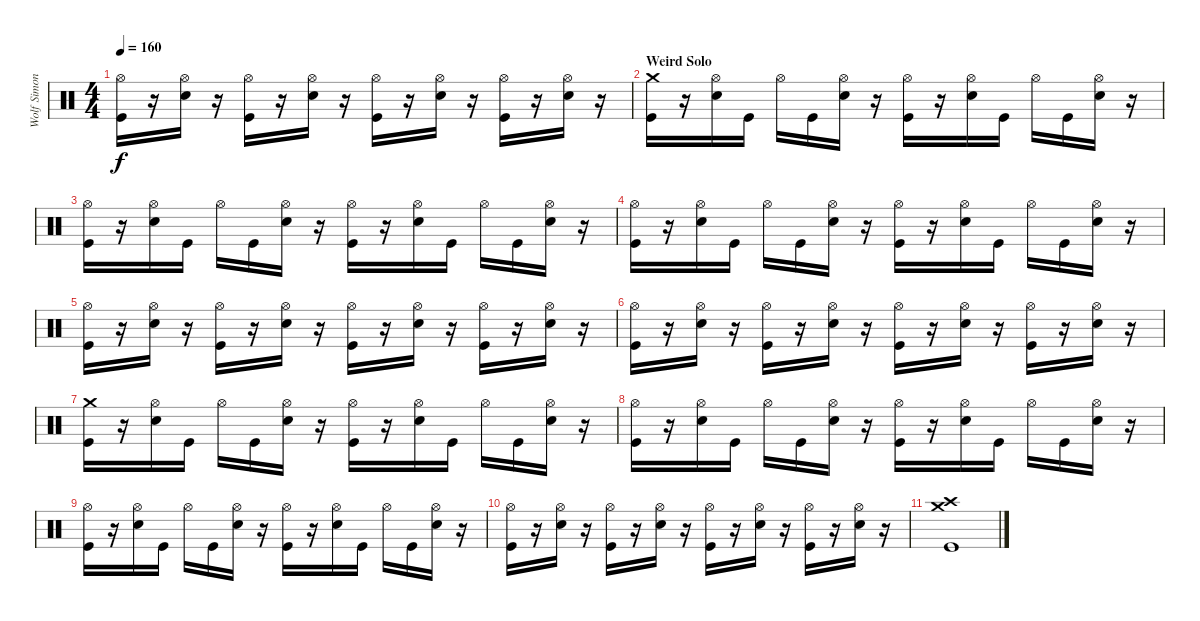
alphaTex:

\track ("Wolf Simons" "Wolf Simon") {instrument percussion}
\staff {score}
\articulation defaults
\ts (4 4)
\tempo 160
\clef neutral
\ks c
("Hi-Hat (open)" "Kick (hit)").16{dy f} r.16 ("Hi-Hat (open)" "Electric Snare (hit)").16 r.16 ("Hi-Hat (open)" "Kick (hit)").16 r.16 ("Hi-Hat (open)" "Electric Snare (hit)").16 r.16 ("Hi-Hat (open)" "Kick (hit)").16 r.16 ("Hi-Hat (open)" "Electric Snare (hit)").16 r.16 ("Hi-Hat (open)" "Kick (hit)").16 r.16 ("Hi-Hat (open)" "Electric Snare (hit)").16 r.16 |
\section ("" "Weird Solo")
("Crash medium (hit)" "Kick (hit)").16 r.16 ("Hi-Hat (open)" "Electric Snare (hit)").16 "Kick (hit)".16 "Hi-Hat (open)".16 "Kick (hit)".16 ("Hi-Hat (open)" "Electric Snare (hit)").16 r.16 ("Hi-Hat (open)" "Kick (hit)").16 r.16 ("Hi-Hat (open)" "Electric Snare (hit)").16 "Kick (hit)".16 "Hi-Hat (open)".16 "Kick (hit)".16 ("Hi-Hat (open)" "Electric Snare (hit)").16 r.16 |
("Hi-Hat (open)" "Kick (hit)").16 r.16 ("Hi-Hat (open)" "Electric Snare (hit)").16 "Kick (hit)".16 "Hi-Hat (open)".16 "Kick (hit)".16 ("Hi-Hat (open)" "Electric Snare (hit)").16 r.16 ("Hi-Hat (open)" "Kick (hit)").16 r.16 ("Hi-Hat (open)" "Electric Snare (hit)").16 "Kick (hit)".16 "Hi-Hat (open)".16 "Kick (hit)".16 ("Hi-Hat (open)" "Electric Snare (hit)").16 r.16 |
("Hi-Hat (open)" "Kick (hit)").16 r.16 ("Hi-Hat (open)" "Electric Snare (hit)").16 "Kick (hit)".16 "Hi-Hat (open)".16 "Kick (hit)".16 ("Hi-Hat (open)" "Electric Snare (hit)").16 r.16 ("Hi-Hat (open)" "Kick (hit)").16 r.16 ("Hi-Hat (open)" "Electric Snare (hit)").16 "Kick (hit)".16 "Hi-Hat (open)".16 "Kick (hit)".16 ("Hi-Hat (open)" "Electric Snare (hit)").16 r.16 |
("Hi-Hat (open)" "Kick (hit)").16 r.16 ("Hi-Hat (open)" "Electric Snare (hit)").16 r.16 ("Hi-Hat (open)" "Kick (hit)").16 r.16 ("Hi-Hat (open)" "Electric Snare (hit)").16 r.16 ("Hi-Hat (open)" "Kick (hit)").16 r.16 ("Hi-Hat (open)" "Electric Snare (hit)").16 r.16 ("Hi-Hat (open)" "Kick (hit)").16 r.16 ("Hi-Hat (open)" "Electric Snare (hit)").16 r.16 |
("Hi-Hat (open)" "Kick (hit)").16 r.16 ("Hi-Hat (open)" "Electric Snare (hit)").16 r.16 ("Hi-Hat (open)" "Kick (hit)").16 r.16 ("Hi-Hat (open)" "Electric Snare (hit)").16 r.16 ("Hi-Hat (open)" "Kick (hit)").16 r.16 ("Hi-Hat (open)" "Electric Snare (hit)").16 r.16 ("Hi-Hat (open)" "Kick (hit)").16 r.16 ("Hi-Hat (open)" "Electric Snare (hit)").16 r.16 |
("Crash medium (hit)" "Kick (hit)").16 r.16 ("Hi-Hat (open)" "Electric Snare (hit)").16 "Kick (hit)".16 "Hi-Hat (open)".16 "Kick (hit)".16 ("Hi-Hat (open)" "Electric Snare (hit)").16 r.16 ("Hi-Hat (open)" "Kick (hit)").16 r.16 ("Hi-Hat (open)" "Electric Snare (hit)").16 "Kick (hit)".16 "Hi-Hat (open)".16 "Kick (hit)".16 ("Hi-Hat (open)" "Electric Snare (hit)").16 r.16 |
("Hi-Hat (open)" "Kick (hit)").16 r.16 ("Hi-Hat (open)" "Electric Snare (hit)").16 "Kick (hit)".16 "Hi-Hat (open)".16 "Kick (hit)".16 ("Hi-Hat (open)" "Electric Snare (hit)").16 r.16 ("Hi-Hat (open)" "Kick (hit)").16 r.16 ("Hi-Hat (open)" "Electric Snare (hit)").16 "Kick (hit)".16 "Hi-Hat (open)".16 "Kick (hit)".16 ("Hi-Hat (open)" "Electric Snare (hit)").16 r.16 |
("Hi-Hat (open)" "Kick (hit)").16 r.16 ("Hi-Hat (open)" "Electric Snare (hit)").16 "Kick (hit)".16 "Hi-Hat (open)".16 "Kick (hit)".16 ("Hi-Hat (open)" "Electric Snare (hit)").16 r.16 ("Hi-Hat (open)" "Kick (hit)").16 r.16 ("Hi-Hat (open)" "Electric Snare (hit)").16 "Kick (hit)".16 "Hi-Hat (open)".16 "Kick (hit)".16 ("Hi-Hat (open)" "Electric Snare (hit)").16 r.16 |
("Hi-Hat (open)" "Kick (hit)").16 r.16 ("Hi-Hat (open)" "Electric Snare (hit)").16 r.16 ("Hi-Hat (open)" "Kick (hit)").16 r.16 ("Hi-Hat (open)" "Electric Snare (hit)").16 r.16 ("Hi-Hat (open)" "Kick (hit)").16 r.16 ("Hi-Hat (open)" "Electric Snare (hit)").16 r.16 ("Hi-Hat (open)" "Kick (hit)").16 r.16 ("Hi-Hat (open)" "Electric Snare (hit)").16 r.16 |
("Crash high (hit)" "Crash medium (hit)" "Kick (hit)").1
